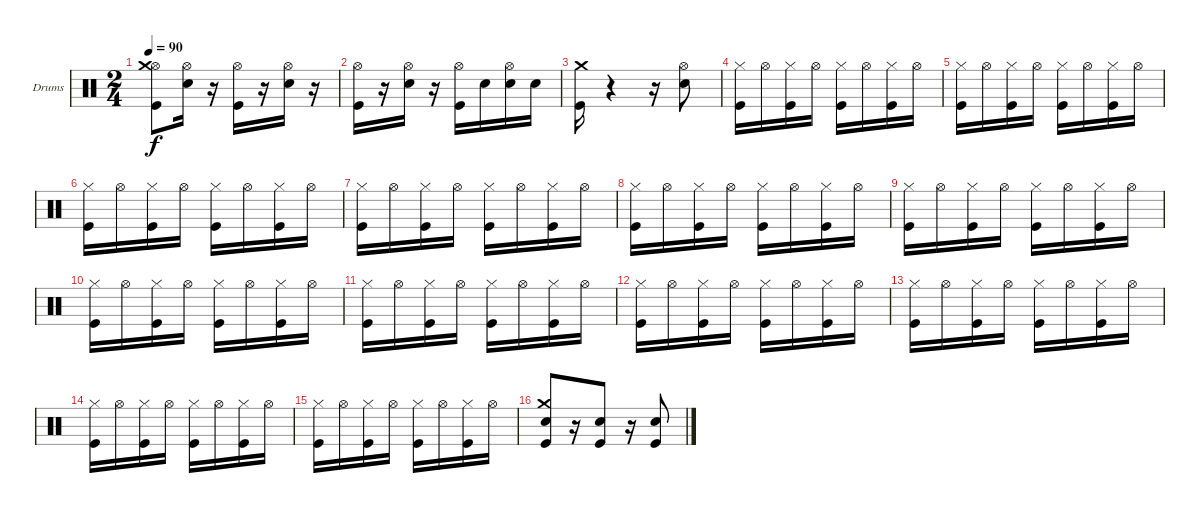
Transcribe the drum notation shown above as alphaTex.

\bracketExtendMode groupsimilarinstruments
\firstSystemTrackNameOrientation horizontal
\otherSystemsTrackNameOrientation horizontal
\track ("Барабаны" "Drums") {instrument percussion}
\staff {score}
\articulation defaults
\ts (2 4)
\tempo 90
\clef neutral
\ks c
("Kick (hit)" "Hi-Hat (open)" "Crash medium (hit)").8{dy f} ("Snare (hit) 2" "Hi-Hat (open)").16 r.16 ("Kick (hit)" "Hi-Hat (open)").16 r.16 ("Snare (hit) 2" "Hi-Hat (open)").16 r.16 |
("Kick (hit)" "Hi-Hat (open)").16 r.16 ("Snare (hit) 2" "Hi-Hat (open)").16 r.16 ("Hi-Hat (open)" "Kick (hit)").16 "Snare (hit) 2".16 ("Hi-Hat (open)" "Snare (hit) 2").16 "Snare (hit) 2".16 |
("Crash medium (hit)" "Kick (hit)").16 r.4 r.16 ("Hi-Hat (open)" "Snare (hit) 2").8 |
("Kick (hit)" "Hi-Hat (closed)").16 "Hi-Hat (open)".16 ("Kick (hit)" "Hi-Hat (closed)").16 "Hi-Hat (open)".16 ("Kick (hit)" "Hi-Hat (closed)").16 "Hi-Hat (open)".16 ("Kick (hit)" "Hi-Hat (closed)").16 "Hi-Hat (open)".16 |
("Kick (hit)" "Hi-Hat (closed)").16 "Hi-Hat (open)".16 ("Kick (hit)" "Hi-Hat (closed)").16 "Hi-Hat (open)".16 ("Kick (hit)" "Hi-Hat (closed)").16 "Hi-Hat (open)".16 ("Kick (hit)" "Hi-Hat (closed)").16 "Hi-Hat (open)".16 |
("Kick (hit)" "Hi-Hat (closed)").16 "Hi-Hat (open)".16 ("Kick (hit)" "Hi-Hat (closed)").16 "Hi-Hat (open)".16 ("Kick (hit)" "Hi-Hat (closed)").16 "Hi-Hat (open)".16 ("Kick (hit)" "Hi-Hat (closed)").16 "Hi-Hat (open)".16 |
("Kick (hit)" "Hi-Hat (closed)").16 "Hi-Hat (open)".16 ("Kick (hit)" "Hi-Hat (closed)").16 "Hi-Hat (open)".16 ("Kick (hit)" "Hi-Hat (closed)").16 "Hi-Hat (open)".16 ("Kick (hit)" "Hi-Hat (closed)").16 "Hi-Hat (open)".16 |
("Kick (hit)" "Hi-Hat (closed)").16 "Hi-Hat (open)".16 ("Kick (hit)" "Hi-Hat (closed)").16 "Hi-Hat (open)".16 ("Kick (hit)" "Hi-Hat (closed)").16 "Hi-Hat (open)".16 ("Kick (hit)" "Hi-Hat (closed)").16 "Hi-Hat (open)".16 |
("Kick (hit)" "Hi-Hat (closed)").16 "Hi-Hat (open)".16 ("Kick (hit)" "Hi-Hat (closed)").16 "Hi-Hat (open)".16 ("Kick (hit)" "Hi-Hat (closed)").16 "Hi-Hat (open)".16 ("Kick (hit)" "Hi-Hat (closed)").16 "Hi-Hat (open)".16 |
("Kick (hit)" "Hi-Hat (closed)").16 "Hi-Hat (open)".16 ("Kick (hit)" "Hi-Hat (closed)").16 "Hi-Hat (open)".16 ("Kick (hit)" "Hi-Hat (closed)").16 "Hi-Hat (open)".16 ("Kick (hit)" "Hi-Hat (closed)").16 "Hi-Hat (open)".16 |
("Kick (hit)" "Hi-Hat (closed)").16 "Hi-Hat (open)".16 ("Kick (hit)" "Hi-Hat (closed)").16 "Hi-Hat (open)".16 ("Kick (hit)" "Hi-Hat (closed)").16 "Hi-Hat (open)".16 ("Kick (hit)" "Hi-Hat (closed)").16 "Hi-Hat (open)".16 |
("Kick (hit)" "Hi-Hat (closed)").16 "Hi-Hat (open)".16 ("Kick (hit)" "Hi-Hat (closed)").16 "Hi-Hat (open)".16 ("Kick (hit)" "Hi-Hat (closed)").16 "Hi-Hat (open)".16 ("Kick (hit)" "Hi-Hat (closed)").16 "Hi-Hat (open)".16 |
("Kick (hit)" "Hi-Hat (closed)").16 "Hi-Hat (open)".16 ("Kick (hit)" "Hi-Hat (closed)").16 "Hi-Hat (open)".16 ("Kick (hit)" "Hi-Hat (closed)").16 "Hi-Hat (open)".16 ("Kick (hit)" "Hi-Hat (closed)").16 "Hi-Hat (open)".16 |
("Kick (hit)" "Hi-Hat (closed)").16 "Hi-Hat (open)".16 ("Kick (hit)" "Hi-Hat (closed)").16 "Hi-Hat (open)".16 ("Kick (hit)" "Hi-Hat (closed)").16 "Hi-Hat (open)".16 ("Kick (hit)" "Hi-Hat (closed)").16 "Hi-Hat (open)".16 |
("Kick (hit)" "Hi-Hat (closed)").16 "Hi-Hat (open)".16 ("Kick (hit)" "Hi-Hat (closed)").16 "Hi-Hat (open)".16 ("Kick (hit)" "Hi-Hat (closed)").16 "Hi-Hat (open)".16 ("Kick (hit)" "Hi-Hat (closed)").16 "Hi-Hat (open)".16 |
("Snare (hit) 2" "Kick (hit)" "Crash medium (hit)").8 r.16 ("Snare (hit) 2" "Kick (hit)").8 r.16 ("Snare (hit) 2" "Kick (hit)").8
